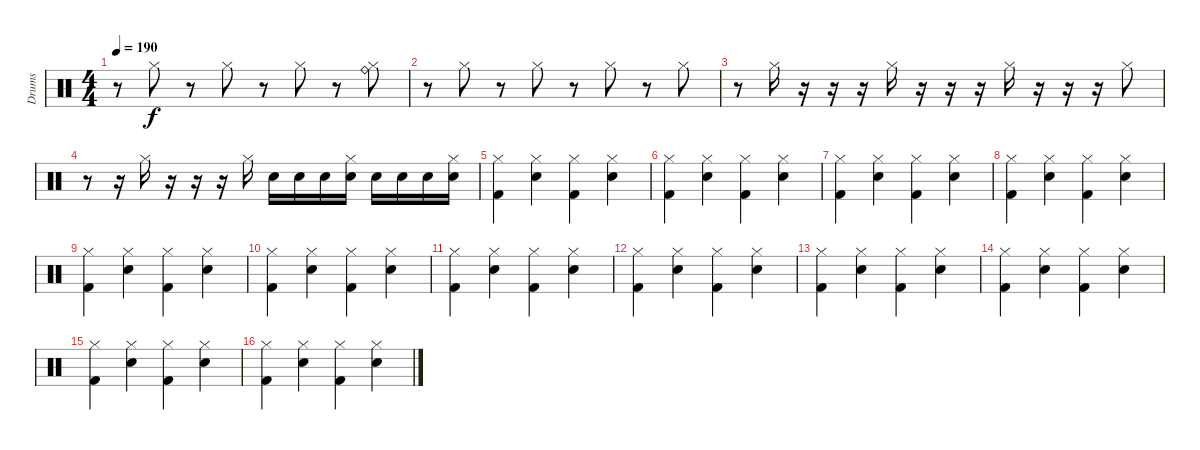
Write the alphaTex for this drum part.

\track ("Drums" "Drums") {instrument percussion}
\staff {score}
\articulation defaults
\ts (4 4)
\tempo 190
\clef neutral
\ks c
r.8{dy f} "Hi-Hat (closed)".8 r.8 "Hi-Hat (closed)".8 r.8 "Hi-Hat (closed)".8 r.8 ("Ride (bell)" "Hi-Hat (closed)").8 |
r.8 "Hi-Hat (closed)".8 r.8 "Hi-Hat (closed)".8 r.8 "Hi-Hat (closed)".8 r.8 "Hi-Hat (closed)".8 |
r.8 "Hi-Hat (closed)".16 r.16 r.16 r.16 "Hi-Hat (closed)".16 r.16 r.16 r.16 "Hi-Hat (closed)".16 r.16 r.16 r.16 "Hi-Hat (closed)".8 |
r.8 r.16 "Hi-Hat (closed)".16 r.16 r.16 r.16 "Hi-Hat (closed)".16 "Electric Snare (hit)".16 "Electric Snare (hit)".16 "Electric Snare (hit)".16 ("Hi-Hat (closed)" "Electric Snare (hit)").16 "Electric Snare (hit)".16 "Electric Snare (hit)".16 "Electric Snare (hit)".16 ("Hi-Hat (closed)" "Electric Snare (hit)").16 |
("Hi-Hat (closed)" "Kick (hit) 2").4 ("Hi-Hat (closed)" "Electric Snare (hit)").4 ("Hi-Hat (closed)" "Kick (hit) 2").4 ("Hi-Hat (closed)" "Electric Snare (hit)").4 |
("Hi-Hat (closed)" "Kick (hit) 2").4 ("Hi-Hat (closed)" "Electric Snare (hit)").4 ("Hi-Hat (closed)" "Kick (hit) 2").4 ("Hi-Hat (closed)" "Electric Snare (hit)").4 |
("Hi-Hat (closed)" "Kick (hit) 2").4 ("Hi-Hat (closed)" "Electric Snare (hit)").4 ("Hi-Hat (closed)" "Kick (hit) 2").4 ("Hi-Hat (closed)" "Electric Snare (hit)").4 |
("Hi-Hat (closed)" "Kick (hit) 2").4 ("Hi-Hat (closed)" "Electric Snare (hit)").4 ("Hi-Hat (closed)" "Kick (hit) 2").4 ("Hi-Hat (closed)" "Electric Snare (hit)").4 |
("Hi-Hat (closed)" "Kick (hit) 2").4 ("Hi-Hat (closed)" "Electric Snare (hit)").4 ("Hi-Hat (closed)" "Kick (hit) 2").4 ("Hi-Hat (closed)" "Electric Snare (hit)").4 |
("Hi-Hat (closed)" "Kick (hit) 2").4 ("Hi-Hat (closed)" "Electric Snare (hit)").4 ("Hi-Hat (closed)" "Kick (hit) 2").4 ("Hi-Hat (closed)" "Electric Snare (hit)").4 |
("Hi-Hat (closed)" "Kick (hit) 2").4 ("Hi-Hat (closed)" "Electric Snare (hit)").4 ("Hi-Hat (closed)" "Kick (hit) 2").4 ("Hi-Hat (closed)" "Electric Snare (hit)").4 |
("Hi-Hat (closed)" "Kick (hit) 2").4 ("Hi-Hat (closed)" "Electric Snare (hit)").4 ("Hi-Hat (closed)" "Kick (hit) 2").4 ("Hi-Hat (closed)" "Electric Snare (hit)").4 |
("Hi-Hat (closed)" "Kick (hit) 2").4 ("Hi-Hat (closed)" "Electric Snare (hit)").4 ("Hi-Hat (closed)" "Kick (hit) 2").4 ("Hi-Hat (closed)" "Electric Snare (hit)").4 |
("Hi-Hat (closed)" "Kick (hit) 2").4 ("Hi-Hat (closed)" "Electric Snare (hit)").4 ("Hi-Hat (closed)" "Kick (hit) 2").4 ("Hi-Hat (closed)" "Electric Snare (hit)").4 |
("Hi-Hat (closed)" "Kick (hit) 2").4 ("Hi-Hat (closed)" "Electric Snare (hit)").4 ("Hi-Hat (closed)" "Kick (hit) 2").4 ("Hi-Hat (closed)" "Electric Snare (hit)").4 |
("Hi-Hat (closed)" "Kick (hit) 2").4 ("Hi-Hat (closed)" "Electric Snare (hit)").4 ("Hi-Hat (closed)" "Kick (hit) 2").4 ("Hi-Hat (closed)" "Electric Snare (hit)").4
